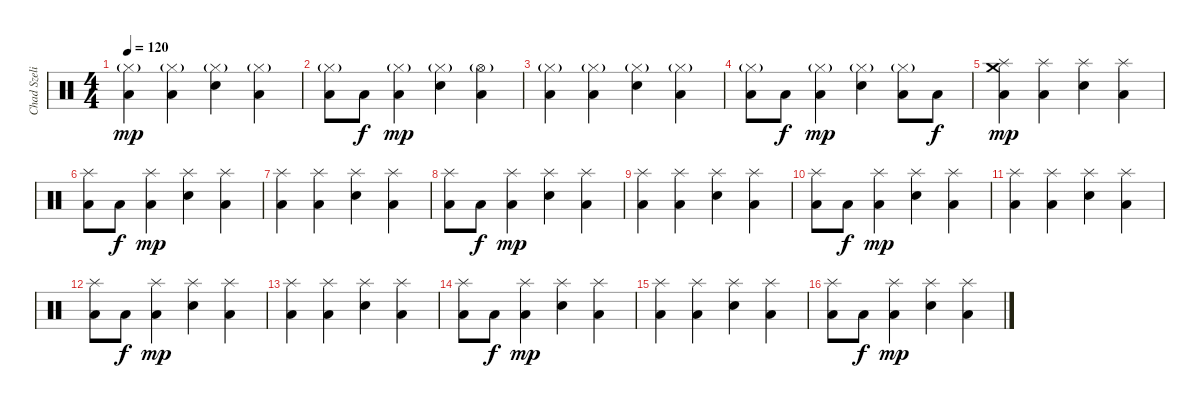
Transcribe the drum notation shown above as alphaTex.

\track ("Chad Szeliga (batteria)" "Chad Szeli") {instrument percussion}
\staff {score}
\articulation defaults
\ts (4 4)
\tempo 120
\clef neutral
\ks c
("Low Floor Tom (hit)" "Hi-Hat (closed)"{g}).4{dy mp} ("Low Floor Tom (hit)" "Hi-Hat (closed)"{g}).4 ("Snare (hit) 2" "Hi-Hat (closed)"{g}).4 ("Low Floor Tom (hit)" "Hi-Hat (closed)"{g}).4 |
("Low Floor Tom (hit)" "Hi-Hat (closed)"{g}).8 "Low Floor Tom (hit)".8{dy f} ("Low Floor Tom (hit)" "Hi-Hat (closed)"{g}).4{dy mp} ("Snare (hit) 2" "Hi-Hat (closed)"{g}).4 ("Low Floor Tom (hit)" "Hi-Hat (open)"{g}).4 |
("Low Floor Tom (hit)" "Hi-Hat (closed)"{g}).4 ("Low Floor Tom (hit)" "Hi-Hat (closed)"{g}).4 ("Snare (hit) 2" "Hi-Hat (closed)"{g}).4 ("Low Floor Tom (hit)" "Hi-Hat (closed)"{g}).4 |
("Low Floor Tom (hit)" "Hi-Hat (closed)"{g}).8 "Low Floor Tom (hit)".8{dy f} ("Low Floor Tom (hit)" "Hi-Hat (closed)"{g}).4{dy mp} ("Snare (hit) 2" "Hi-Hat (closed)"{g}).4 ("Low Floor Tom (hit)" "Hi-Hat (closed)"{g}).8 "Low Floor Tom (hit)".8{dy f} |
("Crash medium (hit)" "Low Floor Tom (hit)" "Splash (hit)").4{dy mp} ("Low Floor Tom (hit)" "Splash (hit)").4 ("Snare (hit) 2" "Splash (hit)").4 ("Low Floor Tom (hit)" "Splash (hit)").4 |
("Low Floor Tom (hit)" "Splash (hit)").8 "Low Floor Tom (hit)".8{dy f} ("Low Floor Tom (hit)" "Splash (hit)").4{dy mp} ("Snare (hit) 2" "Splash (hit)").4 ("Low Floor Tom (hit)" "Splash (hit)").4 |
("Low Floor Tom (hit)" "Splash (hit)").4 ("Low Floor Tom (hit)" "Splash (hit)").4 ("Snare (hit) 2" "Splash (hit)").4 ("Low Floor Tom (hit)" "Splash (hit)").4 |
("Low Floor Tom (hit)" "Splash (hit)").8 "Low Floor Tom (hit)".8{dy f} ("Low Floor Tom (hit)" "Splash (hit)").4{dy mp} ("Snare (hit) 2" "Splash (hit)").4 ("Low Floor Tom (hit)" "Splash (hit)").4 |
("Low Floor Tom (hit)" "Splash (hit)").4 ("Low Floor Tom (hit)" "Splash (hit)").4 ("Snare (hit) 2" "Splash (hit)").4 ("Low Floor Tom (hit)" "Splash (hit)").4 |
("Low Floor Tom (hit)" "Splash (hit)").8 "Low Floor Tom (hit)".8{dy f} ("Low Floor Tom (hit)" "Splash (hit)").4{dy mp} ("Snare (hit) 2" "Splash (hit)").4 ("Low Floor Tom (hit)" "Splash (hit)").4 |
("Low Floor Tom (hit)" "Splash (hit)").4 ("Low Floor Tom (hit)" "Splash (hit)").4 ("Snare (hit) 2" "Splash (hit)").4 ("Low Floor Tom (hit)" "Splash (hit)").4 |
("Low Floor Tom (hit)" "Splash (hit)").8 "Low Floor Tom (hit)".8{dy f} ("Low Floor Tom (hit)" "Splash (hit)").4{dy mp} ("Snare (hit) 2" "Splash (hit)").4 ("Low Floor Tom (hit)" "Splash (hit)").4 |
("Low Floor Tom (hit)" "Splash (hit)").4 ("Low Floor Tom (hit)" "Splash (hit)").4 ("Snare (hit) 2" "Splash (hit)").4 ("Low Floor Tom (hit)" "Splash (hit)").4 |
("Low Floor Tom (hit)" "Splash (hit)").8 "Low Floor Tom (hit)".8{dy f} ("Low Floor Tom (hit)" "Splash (hit)").4{dy mp} ("Snare (hit) 2" "Splash (hit)").4 ("Low Floor Tom (hit)" "Splash (hit)").4 |
("Low Floor Tom (hit)" "Splash (hit)").4 ("Low Floor Tom (hit)" "Splash (hit)").4 ("Snare (hit) 2" "Splash (hit)").4 ("Low Floor Tom (hit)" "Splash (hit)").4 |
("Low Floor Tom (hit)" "Splash (hit)").8 "Low Floor Tom (hit)".8{dy f} ("Low Floor Tom (hit)" "Splash (hit)").4{dy mp} ("Snare (hit) 2" "Splash (hit)").4 ("Low Floor Tom (hit)" "Splash (hit)").4
